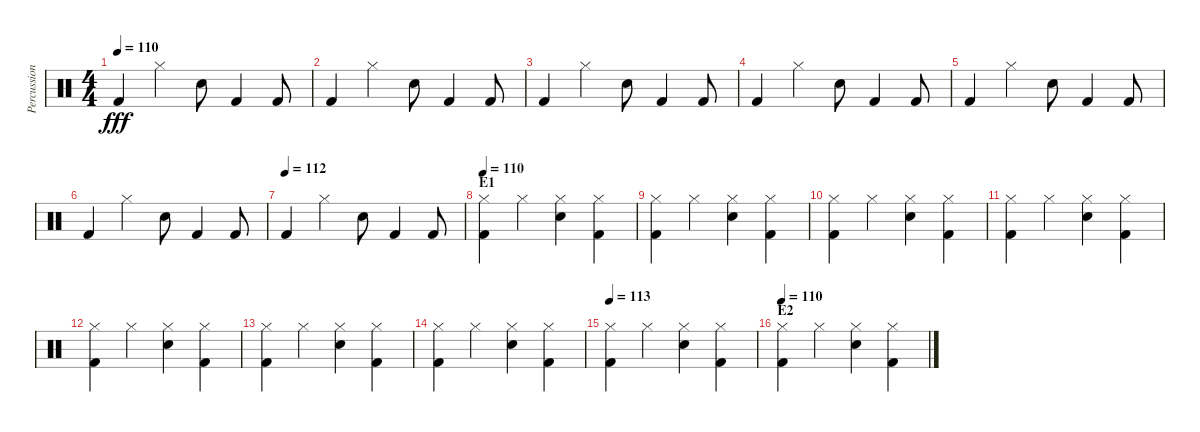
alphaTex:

\track ("Percussion" "Percussion") {instrument percussion}
\staff {score}
\articulation defaults
\ts (4 4)
\tempo 110
\clef neutral
\ks c "Kick (hit) 2".4{dy fff} "Hi-Hat (closed)".4 "Electric Snare (hit)".8 "Kick (hit) 2".4 "Kick (hit) 2".8
|
"Kick (hit) 2".4 "Hi-Hat (closed)".4 "Electric Snare (hit)".8 "Kick (hit) 2".4 "Kick (hit) 2".8 |
"Kick (hit) 2".4 "Hi-Hat (closed)".4 "Electric Snare (hit)".8 "Kick (hit) 2".4 "Kick (hit) 2".8 |
"Kick (hit) 2".4 "Hi-Hat (closed)".4 "Electric Snare (hit)".8 "Kick (hit) 2".4 "Kick (hit) 2".8 |
"Kick (hit) 2".4 "Hi-Hat (closed)".4 "Electric Snare (hit)".8 "Kick (hit) 2".4 "Kick (hit) 2".8 |
"Kick (hit) 2".4 "Hi-Hat (closed)".4 "Electric Snare (hit)".8 "Kick (hit) 2".4 "Kick (hit) 2".8 |
\tempo (112)
"Kick (hit) 2".4 "Hi-Hat (closed)".4 "Electric Snare (hit)".8 "Kick (hit) 2".4 "Kick (hit) 2".8 |
\section ("" "E1")
\tempo 110
("Kick (hit) 2" "Hi-Hat (closed)").4 "Hi-Hat (closed)".4 ("Electric Snare (hit)" "Hi-Hat (closed)").4 ("Kick (hit) 2" "Hi-Hat (closed)").4 |
("Kick (hit) 2" "Hi-Hat (closed)").4 "Hi-Hat (closed)".4 ("Electric Snare (hit)" "Hi-Hat (closed)").4 ("Kick (hit) 2" "Hi-Hat (closed)").4 |
("Kick (hit) 2" "Hi-Hat (closed)").4 "Hi-Hat (closed)".4 ("Electric Snare (hit)" "Hi-Hat (closed)").4 ("Kick (hit) 2" "Hi-Hat (closed)").4 |
("Kick (hit) 2" "Hi-Hat (closed)").4 "Hi-Hat (closed)".4 ("Electric Snare (hit)" "Hi-Hat (closed)").4 ("Kick (hit) 2" "Hi-Hat (closed)").4 |
("Kick (hit) 2" "Hi-Hat (closed)").4 "Hi-Hat (closed)".4 ("Electric Snare (hit)" "Hi-Hat (closed)").4 ("Kick (hit) 2" "Hi-Hat (closed)").4 |
("Kick (hit) 2" "Hi-Hat (closed)").4 "Hi-Hat (closed)".4 ("Electric Snare (hit)" "Hi-Hat (closed)").4 ("Kick (hit) 2" "Hi-Hat (closed)").4 |
("Kick (hit) 2" "Hi-Hat (closed)").4 "Hi-Hat (closed)".4 ("Electric Snare (hit)" "Hi-Hat (closed)").4 ("Kick (hit) 2" "Hi-Hat (closed)").4 |
\tempo 113
("Kick (hit) 2" "Hi-Hat (closed)").4 "Hi-Hat (closed)".4 ("Electric Snare (hit)" "Hi-Hat (closed)").4 ("Kick (hit) 2" "Hi-Hat (closed)").4 |
\section ("" "E2")
\tempo 110
("Kick (hit) 2" "Hi-Hat (closed)").4 "Hi-Hat (closed)".4 ("Electric Snare (hit)" "Hi-Hat (closed)").4 ("Kick (hit) 2" "Hi-Hat (closed)").4
